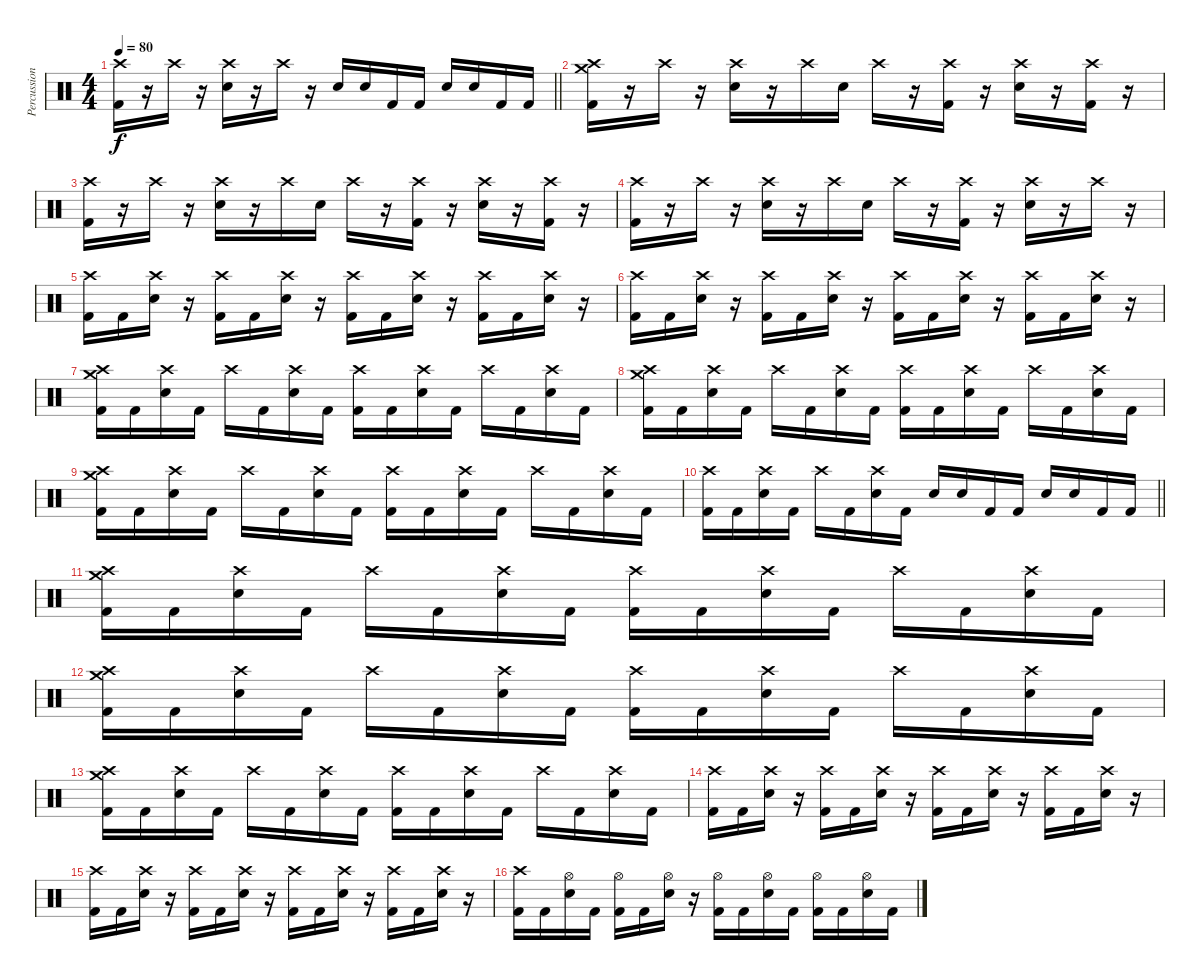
\track ("Percussion" "Percussion") {instrument percussion}
\staff {score}
\articulation defaults
\ts (4 4)
\tempo 80
\clef neutral
\barLineRight lightlight
\ks c
("Crash high (hit)" "Kick (hit) 2").16{dy f} r.16 "Crash high (hit)".16 r.16 ("Crash high (hit)" "Electric Snare (hit)").16 r.16 "Crash high (hit)".16 r.16 "Electric Snare (hit)".16 "Electric Snare (hit)".16 "Kick (hit) 2".16 "Kick (hit) 2".16 "Electric Snare (hit)".16 "Electric Snare (hit)".16 "Kick (hit) 2".16 "Kick (hit) 2".16 |
("Crash medium (hit)" "Crash high (hit)" "Kick (hit) 2").16 r.16 "Crash high (hit)".16 r.16 ("Crash high (hit)" "Electric Snare (hit)").16 r.16 "Crash high (hit)".16 "Electric Snare (hit)".16 "Crash high (hit)".16 r.16 ("Crash high (hit)" "Kick (hit) 2").16 r.16 ("Crash high (hit)" "Electric Snare (hit)").16 r.16 ("Crash high (hit)" "Kick (hit) 2").16 r.16 |
("Crash high (hit)" "Kick (hit) 2").16 r.16 "Crash high (hit)".16 r.16 ("Crash high (hit)" "Electric Snare (hit)").16 r.16 "Crash high (hit)".16 "Electric Snare (hit)".16 "Crash high (hit)".16 r.16 ("Crash high (hit)" "Kick (hit) 2").16 r.16 ("Crash high (hit)" "Electric Snare (hit)").16 r.16 ("Crash high (hit)" "Kick (hit) 2").16 r.16 |
("Crash high (hit)" "Kick (hit) 2").16 r.16 "Crash high (hit)".16 r.16 ("Crash high (hit)" "Electric Snare (hit)").16 r.16 "Crash high (hit)".16 "Electric Snare (hit)".16 "Crash high (hit)".16 r.16 ("Crash high (hit)" "Kick (hit) 2").16 r.16 ("Crash high (hit)" "Electric Snare (hit)").16 r.16 "Crash high (hit)".16 r.16 |
("Crash high (hit)" "Kick (hit) 2").16 "Kick (hit) 2".16 ("Crash high (hit)" "Electric Snare (hit)").16 r.16 ("Crash high (hit)" "Kick (hit) 2").16 "Kick (hit) 2".16 ("Crash high (hit)" "Electric Snare (hit)").16 r.16 ("Crash high (hit)" "Kick (hit) 2").16 "Kick (hit) 2".16 ("Crash high (hit)" "Electric Snare (hit)").16 r.16 ("Crash high (hit)" "Kick (hit) 2").16 "Kick (hit) 2".16 ("Crash high (hit)" "Electric Snare (hit)").16 r.16 |
("Crash high (hit)" "Kick (hit) 2").16 "Kick (hit) 2".16 ("Crash high (hit)" "Electric Snare (hit)").16 r.16 ("Crash high (hit)" "Kick (hit) 2").16 "Kick (hit) 2".16 ("Crash high (hit)" "Electric Snare (hit)").16 r.16 ("Crash high (hit)" "Kick (hit) 2").16 "Kick (hit) 2".16 ("Crash high (hit)" "Electric Snare (hit)").16 r.16 ("Crash high (hit)" "Kick (hit) 2").16 "Kick (hit) 2".16 ("Crash high (hit)" "Electric Snare (hit)").16 r.16 |
("Crash medium (hit)" "Crash high (hit)" "Kick (hit) 2").16 "Kick (hit) 2".16 ("Crash high (hit)" "Electric Snare (hit)").16 "Kick (hit) 2".16 "Crash high (hit)".16 "Kick (hit) 2".16 ("Crash high (hit)" "Electric Snare (hit)").16 "Kick (hit) 2".16 ("Crash high (hit)" "Kick (hit) 2").16 "Kick (hit) 2".16 ("Crash high (hit)" "Electric Snare (hit)").16 "Kick (hit) 2".16 "Crash high (hit)".16 "Kick (hit) 2".16 ("Crash high (hit)" "Electric Snare (hit)").16 "Kick (hit) 2".16 |
("Crash medium (hit)" "Crash high (hit)" "Kick (hit) 2").16 "Kick (hit) 2".16 ("Crash high (hit)" "Electric Snare (hit)").16 "Kick (hit) 2".16 "Crash high (hit)".16 "Kick (hit) 2".16 ("Crash high (hit)" "Electric Snare (hit)").16 "Kick (hit) 2".16 ("Crash high (hit)" "Kick (hit) 2").16 "Kick (hit) 2".16 ("Crash high (hit)" "Electric Snare (hit)").16 "Kick (hit) 2".16 "Crash high (hit)".16 "Kick (hit) 2".16 ("Crash high (hit)" "Electric Snare (hit)").16 "Kick (hit) 2".16 |
("Crash medium (hit)" "Crash high (hit)" "Kick (hit) 2").16 "Kick (hit) 2".16 ("Crash high (hit)" "Electric Snare (hit)").16 "Kick (hit) 2".16 "Crash high (hit)".16 "Kick (hit) 2".16 ("Crash high (hit)" "Electric Snare (hit)").16 "Kick (hit) 2".16 ("Crash high (hit)" "Kick (hit) 2").16 "Kick (hit) 2".16 ("Crash high (hit)" "Electric Snare (hit)").16 "Kick (hit) 2".16 "Crash high (hit)".16 "Kick (hit) 2".16 ("Crash high (hit)" "Electric Snare (hit)").16 "Kick (hit) 2".16 |
\barLineRight lightlight
("Crash high (hit)" "Kick (hit) 2").16 "Kick (hit) 2".16 ("Crash high (hit)" "Electric Snare (hit)").16 "Kick (hit) 2".16 "Crash high (hit)".16 "Kick (hit) 2".16 ("Crash high (hit)" "Electric Snare (hit)").16 "Kick (hit) 2".16 "Electric Snare (hit)".16 "Electric Snare (hit)".16 "Kick (hit) 2".16 "Kick (hit) 2".16 "Electric Snare (hit)".16 "Electric Snare (hit)".16 "Kick (hit) 2".16 "Kick (hit) 2".16 |
("Crash medium (hit)" "Crash high (hit)" "Kick (hit) 2").16 "Kick (hit) 2".16 ("Crash high (hit)" "Electric Snare (hit)").16 "Kick (hit) 2".16 "Crash high (hit)".16 "Kick (hit) 2".16 ("Crash high (hit)" "Electric Snare (hit)").16 "Kick (hit) 2".16 ("Crash high (hit)" "Kick (hit) 2").16 "Kick (hit) 2".16 ("Crash high (hit)" "Electric Snare (hit)").16 "Kick (hit) 2".16 "Crash high (hit)".16 "Kick (hit) 2".16 ("Crash high (hit)" "Electric Snare (hit)").16 "Kick (hit) 2".16 |
("Crash medium (hit)" "Crash high (hit)" "Kick (hit) 2").16 "Kick (hit) 2".16 ("Crash high (hit)" "Electric Snare (hit)").16 "Kick (hit) 2".16 "Crash high (hit)".16 "Kick (hit) 2".16 ("Crash high (hit)" "Electric Snare (hit)").16 "Kick (hit) 2".16 ("Crash high (hit)" "Kick (hit) 2").16 "Kick (hit) 2".16 ("Crash high (hit)" "Electric Snare (hit)").16 "Kick (hit) 2".16 "Crash high (hit)".16 "Kick (hit) 2".16 ("Crash high (hit)" "Electric Snare (hit)").16 "Kick (hit) 2".16 |
("Crash medium (hit)" "Crash high (hit)" "Kick (hit) 2").16 "Kick (hit) 2".16 ("Crash high (hit)" "Electric Snare (hit)").16 "Kick (hit) 2".16 "Crash high (hit)".16 "Kick (hit) 2".16 ("Crash high (hit)" "Electric Snare (hit)").16 "Kick (hit) 2".16 ("Crash high (hit)" "Kick (hit) 2").16 "Kick (hit) 2".16 ("Crash high (hit)" "Electric Snare (hit)").16 "Kick (hit) 2".16 "Crash high (hit)".16 "Kick (hit) 2".16 ("Crash high (hit)" "Electric Snare (hit)").16 "Kick (hit) 2".16 |
("Crash high (hit)" "Kick (hit) 2").16 "Kick (hit) 2".16 ("Crash high (hit)" "Electric Snare (hit)").16 r.16 ("Crash high (hit)" "Kick (hit) 2").16 "Kick (hit) 2".16 ("Crash high (hit)" "Electric Snare (hit)").16 r.16 ("Crash high (hit)" "Kick (hit) 2").16 "Kick (hit) 2".16 ("Crash high (hit)" "Electric Snare (hit)").16 r.16 ("Crash high (hit)" "Kick (hit) 2").16 "Kick (hit) 2".16 ("Crash high (hit)" "Electric Snare (hit)").16 r.16 |
("Crash high (hit)" "Kick (hit) 2").16 "Kick (hit) 2".16 ("Crash high (hit)" "Electric Snare (hit)").16 r.16 ("Crash high (hit)" "Kick (hit) 2").16 "Kick (hit) 2".16 ("Crash high (hit)" "Electric Snare (hit)").16 r.16 ("Crash high (hit)" "Kick (hit) 2").16 "Kick (hit) 2".16 ("Crash high (hit)" "Electric Snare (hit)").16 r.16 ("Crash high (hit)" "Kick (hit) 2").16 "Kick (hit) 2".16 ("Crash high (hit)" "Electric Snare (hit)").16 r.16 |
("Crash high (hit)" "Kick (hit) 2").16 "Kick (hit) 2".16 ("Hi-Hat (open)" "Electric Snare (hit)").16 "Kick (hit) 2".16 ("Hi-Hat (open)" "Kick (hit) 2").16 "Kick (hit) 2".16 ("Hi-Hat (open)" "Electric Snare (hit)").16 r.16 ("Hi-Hat (open)" "Kick (hit) 2").16 "Kick (hit) 2".16 ("Hi-Hat (open)" "Electric Snare (hit)").16 "Kick (hit) 2".16 ("Hi-Hat (open)" "Kick (hit) 2").16 "Kick (hit) 2".16 ("Hi-Hat (open)" "Electric Snare (hit)").16 "Kick (hit) 2".16
